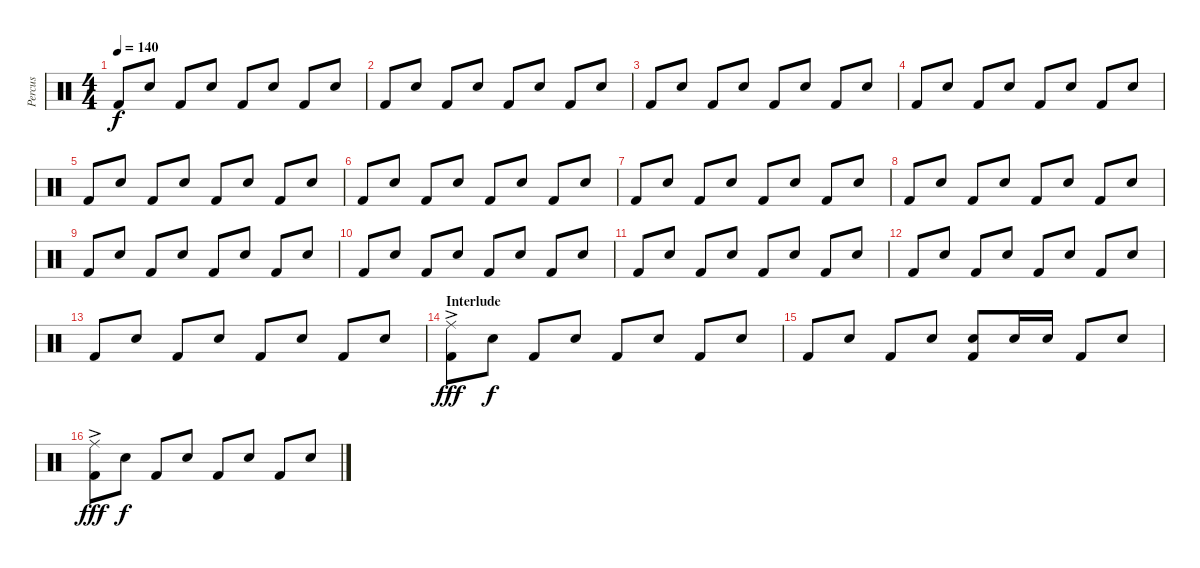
\track ("Percus" "Percus") {instrument percussion}
\staff {score}
\articulation defaults
\ts (4 4)
\tempo 140
\clef neutral
\ks c "Kick (hit) 2".8{dy f} "Snare (hit) 2".8 "Kick (hit) 2".8 "Snare (hit) 2".8 "Kick (hit) 2".8 "Snare (hit) 2".8 "Kick (hit) 2".8 "Snare (hit) 2".8
|
"Kick (hit) 2".8 "Snare (hit) 2".8 "Kick (hit) 2".8 "Snare (hit) 2".8 "Kick (hit) 2".8 "Snare (hit) 2".8 "Kick (hit) 2".8 "Snare (hit) 2".8 |
"Kick (hit) 2".8 "Snare (hit) 2".8 "Kick (hit) 2".8 "Snare (hit) 2".8 "Kick (hit) 2".8 "Snare (hit) 2".8 "Kick (hit) 2".8 "Snare (hit) 2".8 |
"Kick (hit) 2".8 "Snare (hit) 2".8 "Kick (hit) 2".8 "Snare (hit) 2".8 "Kick (hit) 2".8 "Snare (hit) 2".8 "Kick (hit) 2".8 "Snare (hit) 2".8 |
"Kick (hit) 2".8 "Snare (hit) 2".8 "Kick (hit) 2".8 "Snare (hit) 2".8 "Kick (hit) 2".8 "Snare (hit) 2".8 "Kick (hit) 2".8 "Snare (hit) 2".8 |
"Kick (hit) 2".8 "Snare (hit) 2".8 "Kick (hit) 2".8 "Snare (hit) 2".8 "Kick (hit) 2".8 "Snare (hit) 2".8 "Kick (hit) 2".8 "Snare (hit) 2".8 |
"Kick (hit) 2".8 "Snare (hit) 2".8 "Kick (hit) 2".8 "Snare (hit) 2".8 "Kick (hit) 2".8 "Snare (hit) 2".8 "Kick (hit) 2".8 "Snare (hit) 2".8 |
"Kick (hit) 2".8 "Snare (hit) 2".8 "Kick (hit) 2".8 "Snare (hit) 2".8 "Kick (hit) 2".8 "Snare (hit) 2".8 "Kick (hit) 2".8 "Snare (hit) 2".8 |
"Kick (hit) 2".8 "Snare (hit) 2".8 "Kick (hit) 2".8 "Snare (hit) 2".8 "Kick (hit) 2".8 "Snare (hit) 2".8 "Kick (hit) 2".8 "Snare (hit) 2".8 |
"Kick (hit) 2".8 "Snare (hit) 2".8 "Kick (hit) 2".8 "Snare (hit) 2".8 "Kick (hit) 2".8 "Snare (hit) 2".8 "Kick (hit) 2".8 "Snare (hit) 2".8 |
"Kick (hit) 2".8 "Snare (hit) 2".8 "Kick (hit) 2".8 "Snare (hit) 2".8 "Kick (hit) 2".8 "Snare (hit) 2".8 "Kick (hit) 2".8 "Snare (hit) 2".8 |
"Kick (hit) 2".8 "Snare (hit) 2".8 "Kick (hit) 2".8 "Snare (hit) 2".8 "Kick (hit) 2".8 "Snare (hit) 2".8 "Kick (hit) 2".8 "Snare (hit) 2".8 |
"Kick (hit) 2".8 "Snare (hit) 2".8 "Kick (hit) 2".8 "Snare (hit) 2".8 "Kick (hit) 2".8 "Snare (hit) 2".8 "Kick (hit) 2".8 "Snare (hit) 2".8 |
\section ("" "Interlude")
("Ride (middle)"{ac} "Kick (hit) 2").8{dy fff} "Snare (hit) 2".8{dy f} "Kick (hit) 2".8 "Snare (hit) 2".8 "Kick (hit) 2".8 "Snare (hit) 2".8 "Kick (hit) 2".8 "Snare (hit) 2".8 |
"Kick (hit) 2".8 "Snare (hit) 2".8 "Kick (hit) 2".8 "Snare (hit) 2".8 ("Snare (hit) 2" "Kick (hit) 2").8 "Snare (hit) 2".16 "Snare (hit) 2".16 "Kick (hit) 2".8 "Snare (hit) 2".8 |
("Ride (middle)"{ac} "Kick (hit) 2").8{dy fff} "Snare (hit) 2".8{dy f} "Kick (hit) 2".8 "Snare (hit) 2".8 "Kick (hit) 2".8 "Snare (hit) 2".8 "Kick (hit) 2".8 "Snare (hit) 2".8
